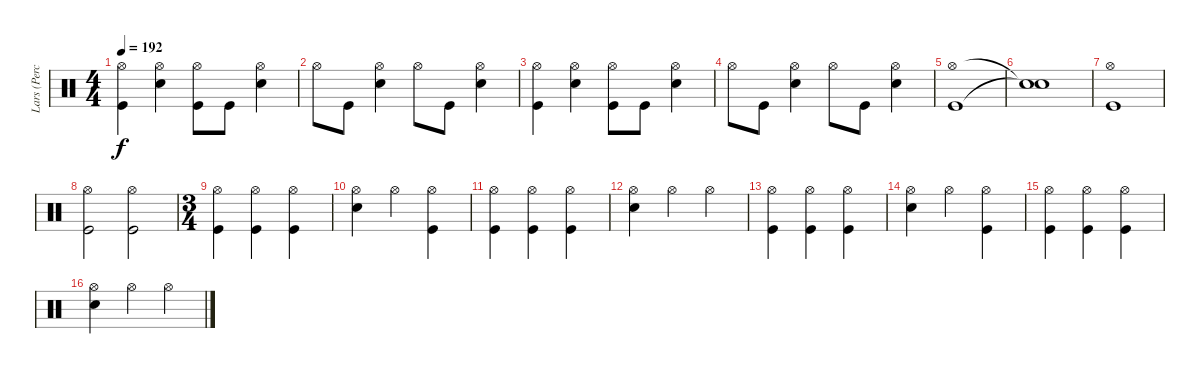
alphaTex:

\track ("Lars (Percussion)" "Lars (Perc") {instrument percussion}
\staff {score}
\articulation defaults
\ts (4 4)
\tempo 192
\clef neutral
\ks c
("Hi-Hat (open)" "Kick (hit)").4{dy f} ("Hi-Hat (open)" "Snare (hit) 2").4 ("Hi-Hat (open)" "Kick (hit)").8 "Kick (hit)".8 ("Hi-Hat (open)" "Snare (hit) 2").4 |
"Hi-Hat (open)".8 "Kick (hit)".8 ("Hi-Hat (open)" "Snare (hit) 2").4 "Hi-Hat (open)".8 "Kick (hit)".8 ("Hi-Hat (open)" "Snare (hit) 2").4 |
("Hi-Hat (open)" "Kick (hit)").4 ("Hi-Hat (open)" "Snare (hit) 2").4 ("Hi-Hat (open)" "Kick (hit)").8 "Kick (hit)".8 ("Hi-Hat (open)" "Snare (hit) 2").4 |
"Hi-Hat (open)".8 "Kick (hit)".8 ("Hi-Hat (open)" "Snare (hit) 2").4 "Hi-Hat (open)".8 "Kick (hit)".8 ("Hi-Hat (open)" "Snare (hit) 2").4 |
("Hi-Hat (open)" "Kick (hit)").1 |
("Snare (hit)"{t} "Snare (hit)"{t}).1 |
("Hi-Hat (open)" "Kick (hit)").1 |
("Hi-Hat (open)" "Kick (hit)").2 ("Hi-Hat (open)" "Kick (hit)").2 |
\ts (3 4)
("Hi-Hat (open)" "Kick (hit)").4 ("Hi-Hat (open)" "Kick (hit)").4 ("Hi-Hat (open)" "Kick (hit)").4 |
("Hi-Hat (open)" "Snare (hit) 2").4 "Hi-Hat (open)".4 ("Hi-Hat (open)" "Kick (hit)").4 |
("Hi-Hat (open)" "Kick (hit)").4 ("Hi-Hat (open)" "Kick (hit)").4 ("Hi-Hat (open)" "Kick (hit)").4 |
("Hi-Hat (open)" "Snare (hit) 2").4 "Hi-Hat (open)".4 "Hi-Hat (open)".4 |
("Hi-Hat (open)" "Kick (hit)").4 ("Hi-Hat (open)" "Kick (hit)").4 ("Hi-Hat (open)" "Kick (hit)").4 |
("Hi-Hat (open)" "Snare (hit) 2").4 "Hi-Hat (open)".4 ("Hi-Hat (open)" "Kick (hit)").4 |
("Hi-Hat (open)" "Kick (hit)").4 ("Hi-Hat (open)" "Kick (hit)").4 ("Hi-Hat (open)" "Kick (hit)").4 |
("Hi-Hat (open)" "Snare (hit) 2").4 "Hi-Hat (open)".4 "Hi-Hat (open)".4
